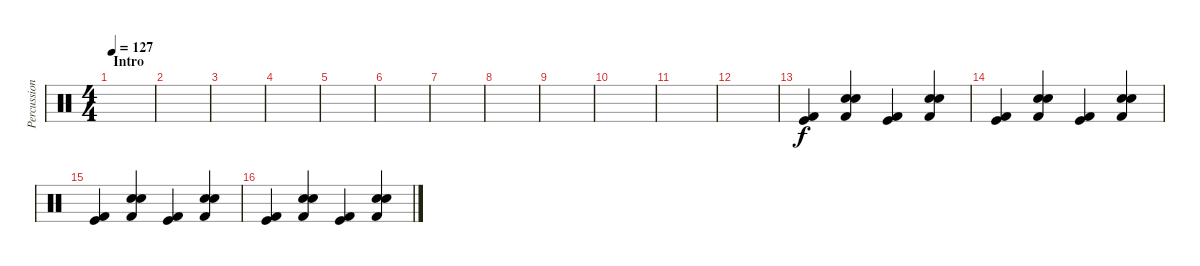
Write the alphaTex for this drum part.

\track ("Percussions" "Percussion") {instrument percussion}
\staff {score}
\articulation defaults
\ts (4 4)
\section ("" "Intro")
\tempo 127
\clef neutral
\ks c
|
|
|
|
|
|
|
|
|
|
|
|
("Kick (hit) 2" "Kick (hit)").4 ("Kick (hit) 2" "Electric Snare (hit)" "Snare (hit) 2").4 ("Kick (hit) 2" "Kick (hit)").4 ("Kick (hit) 2" "Electric Snare (hit)" "Snare (hit) 2").4 |
("Kick (hit) 2" "Kick (hit)").4 ("Kick (hit) 2" "Electric Snare (hit)" "Snare (hit) 2").4 ("Kick (hit) 2" "Kick (hit)").4 ("Kick (hit) 2" "Electric Snare (hit)" "Snare (hit) 2").4 |
("Kick (hit) 2" "Kick (hit)").4 ("Kick (hit) 2" "Electric Snare (hit)" "Snare (hit) 2").4 ("Kick (hit) 2" "Kick (hit)").4 ("Kick (hit) 2" "Electric Snare (hit)" "Snare (hit) 2").4 |
("Kick (hit) 2" "Kick (hit)").4 ("Kick (hit) 2" "Electric Snare (hit)" "Snare (hit) 2").4 ("Kick (hit) 2" "Kick (hit)").4 ("Kick (hit) 2" "Electric Snare (hit)" "Snare (hit) 2").4
